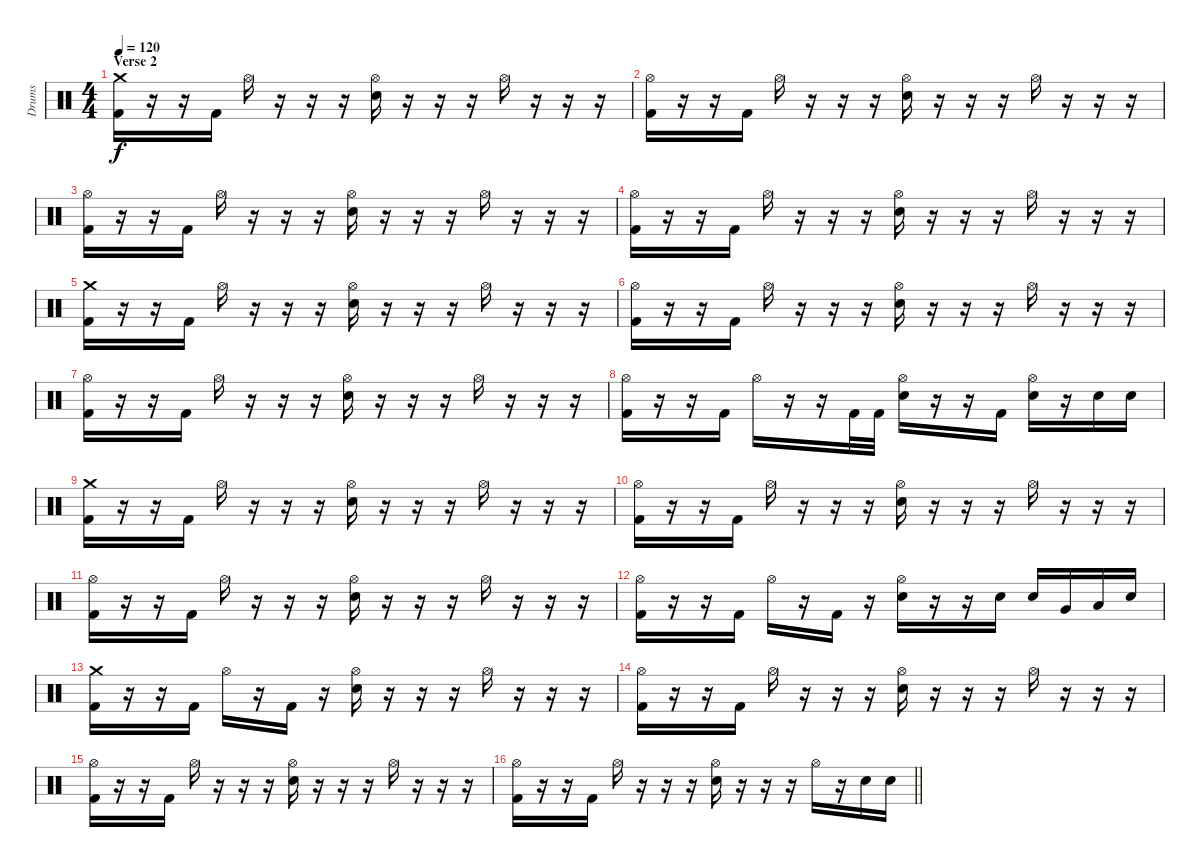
\track ("Drums" "Drums") {instrument percussion}
\staff {score}
\articulation defaults
\ts (4 4)
\section ("" "Verse 2")
\tempo 120
\clef neutral
\ks c
("Crash medium (hit)" "Kick (hit) 2").16{dy f} r.16 r.16 "Kick (hit) 2".16 "Hi-Hat (open)".16 r.16 r.16 r.16 ("Hi-Hat (open)" "Electric Snare (hit)").16 r.16 r.16 r.16 "Hi-Hat (open)".16 r.16 r.16 r.16 |
("Hi-Hat (open)" "Kick (hit) 2").16 r.16 r.16 "Kick (hit) 2".16 "Hi-Hat (open)".16 r.16 r.16 r.16 ("Hi-Hat (open)" "Electric Snare (hit)").16 r.16 r.16 r.16 "Hi-Hat (open)".16 r.16 r.16 r.16 |
("Hi-Hat (open)" "Kick (hit) 2").16 r.16 r.16 "Kick (hit) 2".16 "Hi-Hat (open)".16 r.16 r.16 r.16 ("Hi-Hat (open)" "Electric Snare (hit)").16 r.16 r.16 r.16 "Hi-Hat (open)".16 r.16 r.16 r.16 |
("Hi-Hat (open)" "Kick (hit) 2").16 r.16 r.16 "Kick (hit) 2".16 "Hi-Hat (open)".16 r.16 r.16 r.16 ("Hi-Hat (open)" "Electric Snare (hit)").16 r.16 r.16 r.16 "Hi-Hat (open)".16 r.16 r.16 r.16 |
("Crash medium (hit)" "Kick (hit) 2").16 r.16 r.16 "Kick (hit) 2".16 "Hi-Hat (open)".16 r.16 r.16 r.16 ("Hi-Hat (open)" "Electric Snare (hit)").16 r.16 r.16 r.16 "Hi-Hat (open)".16 r.16 r.16 r.16 |
("Hi-Hat (open)" "Kick (hit) 2").16 r.16 r.16 "Kick (hit) 2".16 "Hi-Hat (open)".16 r.16 r.16 r.16 ("Hi-Hat (open)" "Electric Snare (hit)").16 r.16 r.16 r.16 "Hi-Hat (open)".16 r.16 r.16 r.16 |
("Hi-Hat (open)" "Kick (hit) 2").16 r.16 r.16 "Kick (hit) 2".16 "Hi-Hat (open)".16 r.16 r.16 r.16 ("Hi-Hat (open)" "Electric Snare (hit)").16 r.16 r.16 r.16 "Hi-Hat (open)".16 r.16 r.16 r.16 |
("Hi-Hat (open)" "Kick (hit) 2").16 r.16 r.16 "Kick (hit) 2".16 "Hi-Hat (open)".16 r.16 r.16 "Kick (hit) 2".32 "Kick (hit) 2".32 ("Hi-Hat (open)" "Electric Snare (hit)").16 r.16 r.16 "Kick (hit) 2".16 ("Hi-Hat (open)" "Electric Snare (hit)").16 r.16 "Electric Snare (hit)".16 "Electric Snare (hit)".16 |
("Crash medium (hit)" "Kick (hit) 2").16 r.16 r.16 "Kick (hit) 2".16 "Hi-Hat (open)".16 r.16 r.16 r.16 ("Hi-Hat (open)" "Electric Snare (hit)").16 r.16 r.16 r.16 "Hi-Hat (open)".16 r.16 r.16 r.16 |
("Hi-Hat (open)" "Kick (hit) 2").16 r.16 r.16 "Kick (hit) 2".16 "Hi-Hat (open)".16 r.16 r.16 r.16 ("Hi-Hat (open)" "Electric Snare (hit)").16 r.16 r.16 r.16 "Hi-Hat (open)".16 r.16 r.16 r.16 |
("Hi-Hat (open)" "Kick (hit) 2").16 r.16 r.16 "Kick (hit) 2".16 "Hi-Hat (open)".16 r.16 r.16 r.16 ("Hi-Hat (open)" "Electric Snare (hit)").16 r.16 r.16 r.16 "Hi-Hat (open)".16 r.16 r.16 r.16 |
("Hi-Hat (open)" "Kick (hit) 2").16 r.16 r.16 "Kick (hit) 2".16 "Hi-Hat (open)".16 r.16 "Kick (hit) 2".16 r.16 ("Hi-Hat (open)" "Electric Snare (hit)").16 r.16 r.16 "Electric Snare (hit)".16 "Electric Snare (hit)".16 "Very Low Tom (hit)".16 "Low Tom (hit)".16 "Electric Snare (hit)".16 |
("Crash medium (hit)" "Kick (hit) 2").16 r.16 r.16 "Kick (hit) 2".16 "Hi-Hat (open)".16 r.16 "Kick (hit) 2".16 r.16 ("Hi-Hat (open)" "Electric Snare (hit)").16 r.16 r.16 r.16 "Hi-Hat (open)".16 r.16 r.16 r.16 |
("Hi-Hat (open)" "Kick (hit) 2").16 r.16 r.16 "Kick (hit) 2".16 "Hi-Hat (open)".16 r.16 r.16 r.16 ("Hi-Hat (open)" "Electric Snare (hit)").16 r.16 r.16 r.16 "Hi-Hat (open)".16 r.16 r.16 r.16 |
("Hi-Hat (open)" "Kick (hit) 2").16 r.16 r.16 "Kick (hit) 2".16 "Hi-Hat (open)".16 r.16 r.16 r.16 ("Hi-Hat (open)" "Electric Snare (hit)").16 r.16 r.16 r.16 "Hi-Hat (open)".16 r.16 r.16 r.16 |
\barLineRight lightlight
("Hi-Hat (open)" "Kick (hit) 2").16 r.16 r.16 "Kick (hit) 2".16 "Hi-Hat (open)".16 r.16 r.16 r.16 ("Hi-Hat (open)" "Electric Snare (hit)").16 r.16 r.16 r.16 "Hi-Hat (open)".16 r.16 "Electric Snare (hit)".16 "Electric Snare (hit)".16
